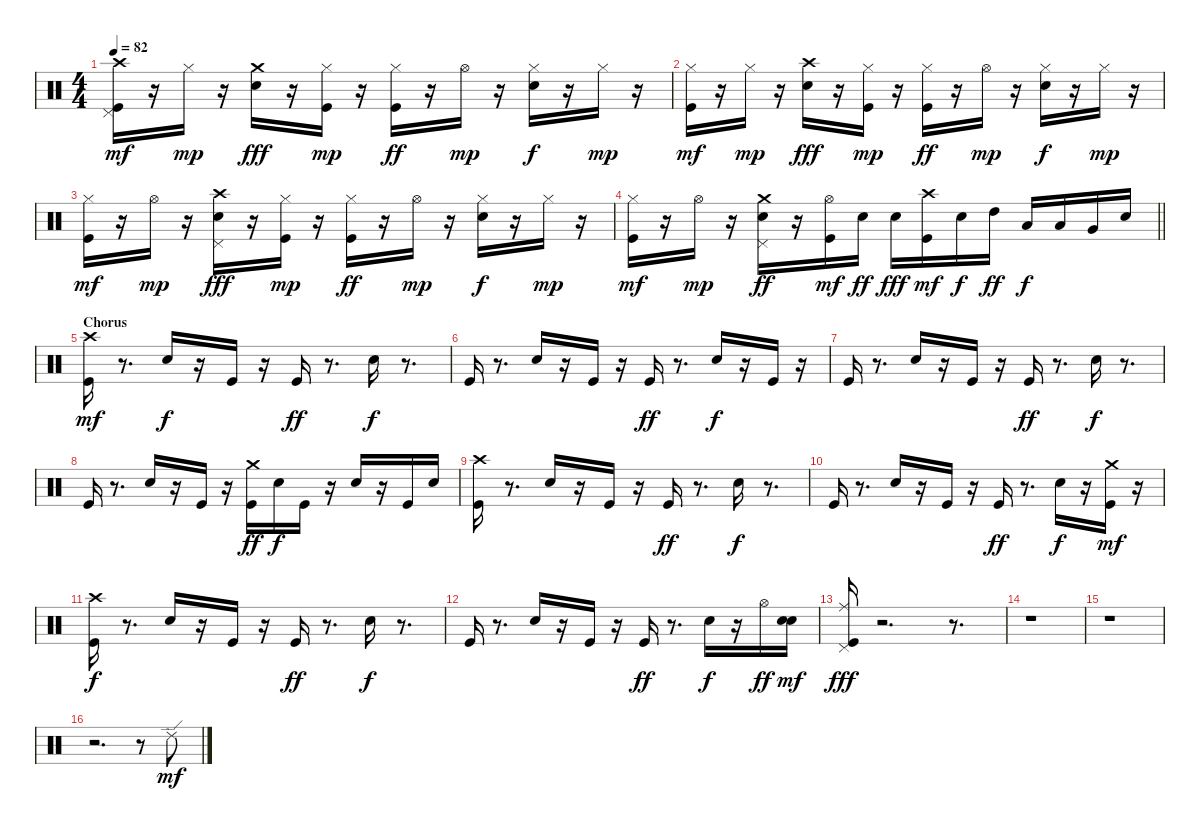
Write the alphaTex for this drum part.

\track "" {instrument percussion}
\staff {score}
\articulation defaults
\ts (4 4)
\tempo 82
\clef neutral
\ks c
("Pedal Hi-Hat (hit)" "Crash high (hit)" "Kick (hit)").16{dy mf} r.16 "Hi-Hat (closed)".16{dy mp} r.16 ("Electric Snare (hit)" "Crash medium (hit)").16{dy fff} r.16 ("Kick (hit)" "Hi-Hat (closed)").16{dy mp} r.16 ("Hi-Hat (closed)" "Kick (hit)").16{dy ff} r.16 "Hi-Hat (open)".16{dy mp} r.16 ("Electric Snare (hit)" "Hi-Hat (closed)").16{dy f} r.16 "Hi-Hat (closed)".16{dy mp} r.16 |
("Hi-Hat (closed)" "Kick (hit)").16{dy mf} r.16 "Hi-Hat (closed)".16{dy mp} r.16 ("Electric Snare (hit)" "Crash high (hit)").16{dy fff} r.16 ("Kick (hit)" "Hi-Hat (closed)").16{dy mp} r.16 ("Hi-Hat (closed)" "Kick (hit)").16{dy ff} r.16 "Hi-Hat (open)".16{dy mp} r.16 ("Electric Snare (hit)" "Hi-Hat (closed)").16{dy f} r.16 "Hi-Hat (closed)".16{dy mp} r.16 |
("Hi-Hat (closed)" "Kick (hit)").16{dy mf} r.16 "Hi-Hat (open)".16{dy mp} r.16 ("Pedal Hi-Hat (hit)" "Electric Snare (hit)" "Crash high (hit)").16{dy fff} r.16 ("Kick (hit)" "Hi-Hat (closed)").16{dy mp} r.16 ("Hi-Hat (closed)" "Kick (hit)").16{dy ff} r.16 "Hi-Hat (open)".16{dy mp} r.16 ("Electric Snare (hit)" "Hi-Hat (closed)").16{dy f} r.16 "Hi-Hat (closed)".16{dy mp} r.16 |
\barLineRight lightlight
("Hi-Hat (closed)" "Kick (hit)").16{dy mf} r.16 "Hi-Hat (open)".16{dy mp} r.16 ("Electric Snare (hit)" "Pedal Hi-Hat (hit)" "Crash medium (hit)").16{dy ff} r.16 ("Kick (hit)" "Hi-Hat (open)").16{dy mf} "Electric Snare (hit)".16{dy ff} "Electric Snare (hit)".16{dy fff} ("Kick (hit)" "Crash high (hit)").16{dy mf} "Electric Snare (hit)".16{dy f} "High Tom (hit)".16{dy ff} "Low Tom (hit)".16{dy f} "Low Tom (hit)".16 "Very Low Tom (hit)".16 "Electric Snare (hit)".16 |
\section ("" "Chorus")
("Crash high (hit)" "Kick (hit)").16{dy mf} r.8{d} "Electric Snare (hit)".16{dy f} r.16 "Kick (hit)".16 r.16 "Kick (hit)".16{dy ff} r.8{d} "Electric Snare (hit)".16{dy f} r.8{d} |
"Kick (hit)".16 r.8{d} "Electric Snare (hit)".16 r.16 "Kick (hit)".16 r.16 "Kick (hit)".16{dy ff} r.8{d} "Electric Snare (hit)".16{dy f} r.16 "Kick (hit)".16 r.16 |
"Kick (hit)".16 r.8{d} "Electric Snare (hit)".16 r.16 "Kick (hit)".16 r.16 "Kick (hit)".16{dy ff} r.8{d} "Electric Snare (hit)".16{dy f} r.8{d} |
"Kick (hit)".16 r.8{d} "Electric Snare (hit)".16 r.16 "Kick (hit)".16 r.16 ("Crash medium (hit)" "Kick (hit)").16{dy ff} "Electric Snare (hit)".16{dy f} "Kick (hit)".16 r.16 "Electric Snare (hit)".16 r.16 "Kick (hit)".16 "Electric Snare (hit)".16 |
("Crash high (hit)" "Kick (hit)").16 r.8{d} "Electric Snare (hit)".16 r.16 "Kick (hit)".16 r.16 "Kick (hit)".16{dy ff} r.8{d} "Electric Snare (hit)".16{dy f} r.8{d} |
"Kick (hit)".16 r.8{d} "Electric Snare (hit)".16 r.16 "Kick (hit)".16 r.16 "Kick (hit)".16{dy ff} r.8{d} "Electric Snare (hit)".16{dy f} r.16 ("Kick (hit)" "Crash medium (hit)").16{dy mf} r.16 |
("Crash high (hit)" "Kick (hit)").16{dy f} r.8{d} "Electric Snare (hit)".16 r.16 "Kick (hit)".16 r.16 "Kick (hit)".16{dy ff} r.8{d} "Electric Snare (hit)".16{dy f} r.8{d} |
"Kick (hit)".16 r.8{d} "Electric Snare (hit)".16 r.16 "Kick (hit)".16 r.16 "Kick (hit)".16{dy ff} r.8{d} "Electric Snare (hit)".16{dy f} r.16 "Hi-Hat (open)".16{dy ff} ("Electric Snare (hit)" "Electric Snare (hit)").16{dy mf} |
("Kick (hit)" "Ride (middle)" "Pedal Hi-Hat (hit)").16{dy fff} r.2{d} r.8{d} |
r.1 |
r.1 |
r.2{d} r.8 "Ride (edge) 2".8{dy mf}
